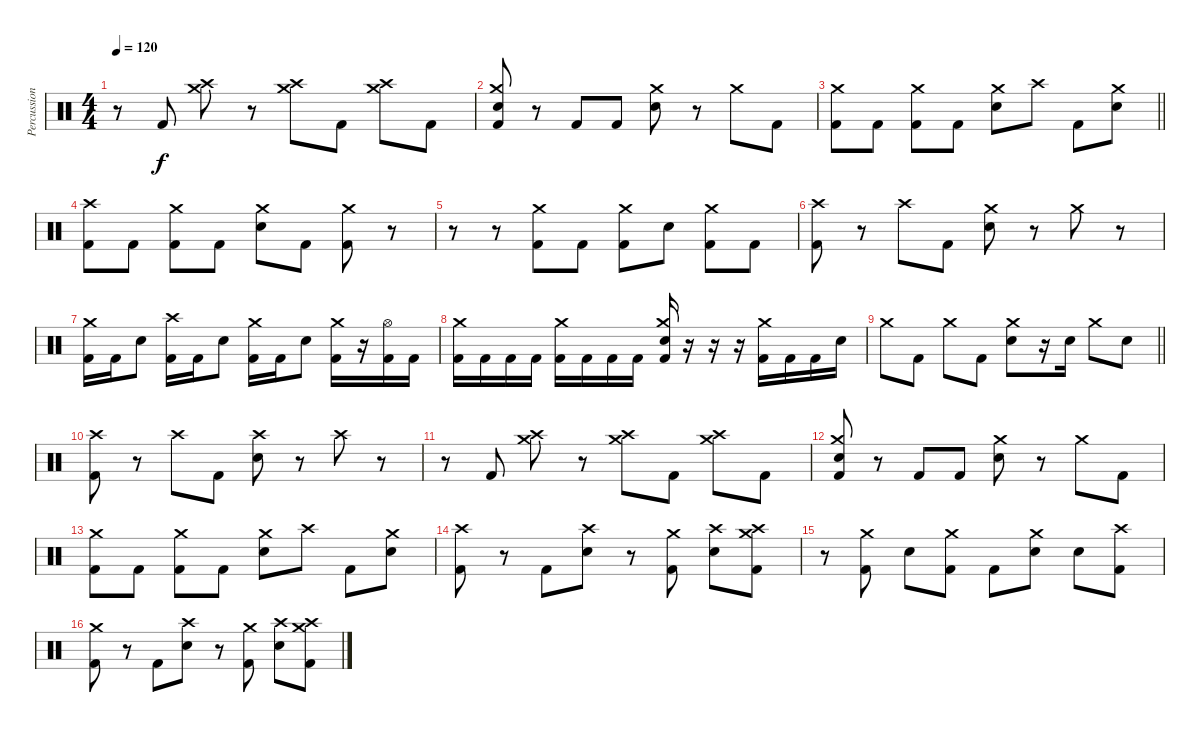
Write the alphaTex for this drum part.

\track ("Percussion" "Percussion") {instrument percussion}
\staff {score}
\articulation defaults
\ts (4 4)
\tempo 120
\clef neutral
\ks c
r.8{dy f} "Kick (hit) 2".8 ("Crash high (hit)" "Crash medium (hit)").8 r.8 ("Crash high (hit)" "Crash medium (hit)").8 "Kick (hit) 2".8 ("Crash high (hit)" "Crash medium (hit)").8 "Kick (hit) 2".8 |
("Crash medium (hit)" "Electric Snare (hit)" "Kick (hit) 2").8 r.8 "Kick (hit) 2".8 "Kick (hit) 2".8 ("Crash medium (hit)" "Electric Snare (hit)").8 r.8 "Crash medium (hit)".8 "Kick (hit) 2".8 |
\barLineRight lightlight
("Crash medium (hit)" "Kick (hit) 2").8 "Kick (hit) 2".8 ("Crash medium (hit)" "Kick (hit) 2").8 "Kick (hit) 2".8 ("Crash medium (hit)" "Electric Snare (hit)").8 "Crash high (hit)".8 "Kick (hit) 2".8 ("Crash medium (hit)" "Electric Snare (hit)").8 |
\section ("" "")
("Crash high (hit)" "Kick (hit) 2").8 "Kick (hit) 2".8 ("Crash medium (hit)" "Kick (hit) 2").8 "Kick (hit) 2".8 ("Crash medium (hit)" "Electric Snare (hit)").8 "Kick (hit) 2".8 ("Crash medium (hit)" "Kick (hit) 2").8 r.8 |
r.8 r.8 ("Crash medium (hit)" "Kick (hit) 2").8 "Kick (hit) 2".8 ("Crash medium (hit)" "Kick (hit) 2").8 "Electric Snare (hit)".8 ("Crash medium (hit)" "Kick (hit) 2").8 "Kick (hit) 2".8 |
("Crash high (hit)" "Kick (hit) 2").8 r.8 "Crash high (hit)".8 "Kick (hit) 2".8 ("Crash medium (hit)" "Electric Snare (hit)").8 r.8 "Crash medium (hit)".8 r.8 |
("Crash medium (hit)" "Kick (hit) 2").16 "Kick (hit) 2".16 "Electric Snare (hit)".8 ("Crash high (hit)" "Kick (hit) 2").16 "Kick (hit) 2".16 "Electric Snare (hit)".8 ("Crash medium (hit)" "Kick (hit) 2").16 "Kick (hit) 2".16 "Electric Snare (hit)".8 ("Crash medium (hit)" "Kick (hit) 2").16 r.16 ("Hi-Hat (open)" "Kick (hit) 2").16 "Kick (hit) 2".16 |
("Crash medium (hit)" "Kick (hit) 2").16 "Kick (hit) 2".16 "Kick (hit) 2".16 "Kick (hit) 2".16 ("Crash medium (hit)" "Kick (hit) 2").16 "Kick (hit) 2".16 "Kick (hit) 2".16 "Kick (hit) 2".16 ("Crash medium (hit)" "Electric Snare (hit)" "Kick (hit) 2").16 r.16 r.16 r.16 ("Crash medium (hit)" "Kick (hit) 2").16 "Kick (hit) 2".16 "Kick (hit) 2".16 "Electric Snare (hit)".16 |
\barLineRight lightlight "Crash medium (hit)".8 "Kick (hit) 2".8 "Crash medium (hit)".8 "Kick (hit) 2".8
("Crash medium (hit)" "Electric Snare (hit)").8 r.16 "Electric Snare (hit)".16 "Crash medium (hit)".8 "Electric Snare (hit)".8 |
\section ("" "")
("Crash high (hit)" "Kick (hit) 2").8 r.8 "Crash high (hit)".8 "Kick (hit) 2".8 ("Crash high (hit)" "Electric Snare (hit)").8 r.8 "Crash high (hit)".8 r.8 |
r.8 "Kick (hit) 2".8 ("Crash high (hit)" "Crash medium (hit)").8 r.8 ("Crash high (hit)" "Crash medium (hit)").8 "Kick (hit) 2".8 ("Crash high (hit)" "Crash medium (hit)").8 "Kick (hit) 2".8 |
("Crash medium (hit)" "Electric Snare (hit)" "Kick (hit) 2").8 r.8 "Kick (hit) 2".8 "Kick (hit) 2".8 ("Crash medium (hit)" "Electric Snare (hit)").8 r.8 "Crash medium (hit)".8 "Kick (hit) 2".8 |
("Crash medium (hit)" "Kick (hit) 2").8 "Kick (hit) 2".8 ("Crash medium (hit)" "Kick (hit) 2").8 "Kick (hit) 2".8 ("Crash medium (hit)" "Electric Snare (hit)").8 "Crash high (hit)".8 "Kick (hit) 2".8 ("Crash medium (hit)" "Electric Snare (hit)").8 |
("Crash high (hit)" "Kick (hit) 2").8 r.8 "Kick (hit) 2".8 ("Crash high (hit)" "Electric Snare (hit)").8 r.8 ("Crash medium (hit)" "Kick (hit) 2").8 ("Crash high (hit)" "Electric Snare (hit)").8 ("Crash medium (hit)" "Crash high (hit)" "Kick (hit) 2").8 |
r.8 ("Crash medium (hit)" "Kick (hit) 2").8 "Electric Snare (hit)".8 ("Crash medium (hit)" "Kick (hit) 2").8 "Kick (hit) 2".8 ("Crash medium (hit)" "Electric Snare (hit)").8 "Electric Snare (hit)".8 ("Crash high (hit)" "Kick (hit) 2").8 |
("Crash medium (hit)" "Kick (hit) 2").8 r.8 "Kick (hit) 2".8 ("Crash high (hit)" "Electric Snare (hit)").8 r.8 ("Crash medium (hit)" "Kick (hit) 2").8 ("Crash high (hit)" "Electric Snare (hit)").8 ("Crash medium (hit)" "Crash high (hit)" "Kick (hit) 2").8
